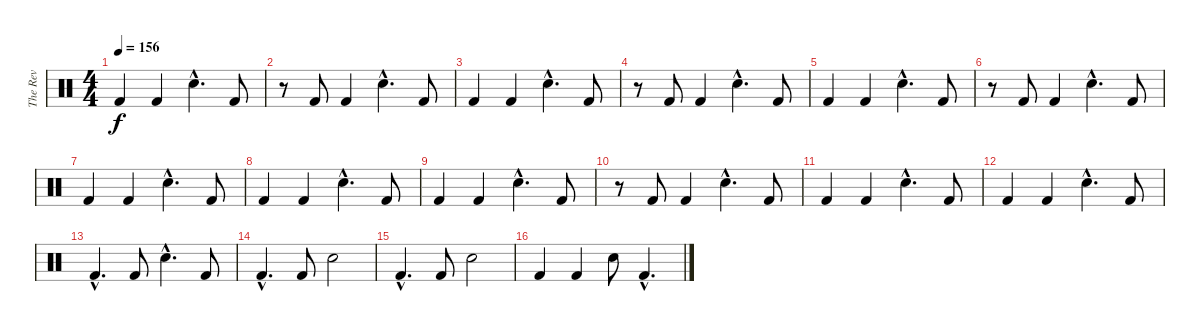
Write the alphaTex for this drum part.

\track ("The Rev" "The Rev") {instrument percussion}
\staff {score}
\articulation defaults
\ts (4 4)
\tempo 156
\clef neutral
\ks c "Kick (hit) 2".4{dy f} "Kick (hit) 2".4 "Electric Snare (hit)"{hac}.4{d} "Kick (hit) 2".8
|
r.8 "Kick (hit) 2".8 "Kick (hit) 2".4 "Electric Snare (hit)"{hac}.4{d} "Kick (hit) 2".8 |
"Kick (hit) 2".4 "Kick (hit) 2".4 "Electric Snare (hit)"{hac}.4{d} "Kick (hit) 2".8 |
r.8 "Kick (hit) 2".8 "Kick (hit) 2".4 "Electric Snare (hit)"{hac}.4{d} "Kick (hit) 2".8 |
"Kick (hit) 2".4 "Kick (hit) 2".4 "Electric Snare (hit)"{hac}.4{d} "Kick (hit) 2".8 |
r.8 "Kick (hit) 2".8 "Kick (hit) 2".4 "Electric Snare (hit)"{hac}.4{d} "Kick (hit) 2".8 |
"Kick (hit) 2".4 "Kick (hit) 2".4 "Electric Snare (hit)"{hac}.4{d} "Kick (hit) 2".8 |
"Kick (hit) 2".4 "Kick (hit) 2".4 "Electric Snare (hit)"{hac}.4{d} "Kick (hit) 2".8 |
"Kick (hit) 2".4 "Kick (hit) 2".4 "Electric Snare (hit)"{hac}.4{d} "Kick (hit) 2".8 |
r.8 "Kick (hit) 2".8 "Kick (hit) 2".4 "Electric Snare (hit)"{hac}.4{d} "Kick (hit) 2".8 |
"Kick (hit) 2".4 "Kick (hit) 2".4 "Electric Snare (hit)"{hac}.4{d} "Kick (hit) 2".8 |
"Kick (hit) 2".4 "Kick (hit) 2".4 "Electric Snare (hit)"{hac}.4{d} "Kick (hit) 2".8 |
"Kick (hit) 2"{hac}.4{d} "Kick (hit) 2".8 "Electric Snare (hit)"{hac}.4{d} "Kick (hit) 2".8 |
"Kick (hit) 2"{hac}.4{d} "Kick (hit) 2".8 "Electric Snare (hit)".2 |
"Kick (hit) 2"{hac}.4{d} "Kick (hit) 2".8 "Electric Snare (hit)".2 |
"Kick (hit) 2".4 "Kick (hit) 2".4 "Electric Snare (hit)".8 "Kick (hit) 2"{hac}.4{d}
